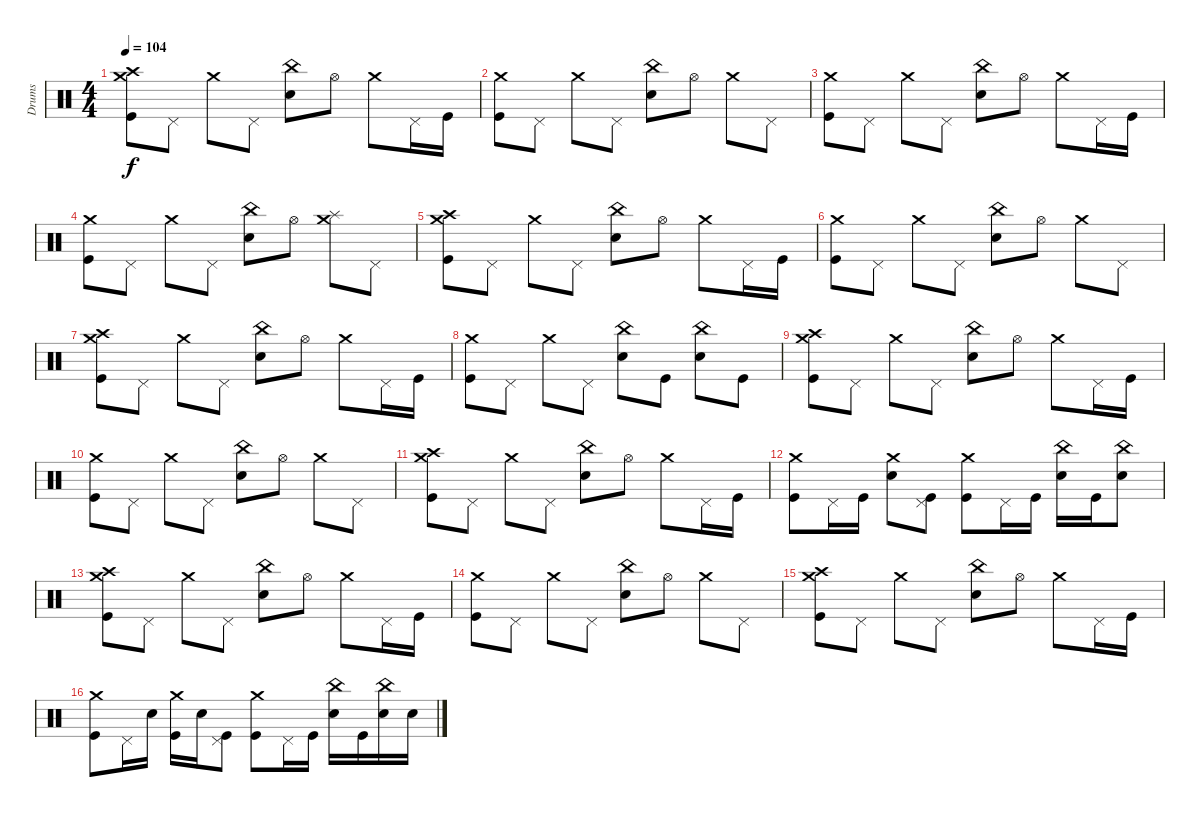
\track ("Drums" "Drums") {instrument percussion}
\staff {score}
\articulation defaults
\ts (4 4)
\tempo 104
\clef neutral
\ks c
("Crash medium (hit)" "Crash high (hit)" "Kick (hit)").8{dy f} "Pedal Hi-Hat (hit)".8 "Crash medium (hit)".8 "Pedal Hi-Hat (hit)".8 ("China (hit)" "Electric Snare (hit)").8 "Hi-Hat (open)".8 "Crash medium (hit)".8 "Pedal Hi-Hat (hit)".16 "Kick (hit)".16 |
("Crash medium (hit)" "Kick (hit)").8 "Pedal Hi-Hat (hit)".8 "Crash medium (hit)".8 "Pedal Hi-Hat (hit)".8 ("China (hit)" "Electric Snare (hit)").8 "Hi-Hat (open)".8 "Crash medium (hit)".8 "Pedal Hi-Hat (hit)".8 |
("Crash medium (hit)" "Kick (hit)").8 "Pedal Hi-Hat (hit)".8 "Crash medium (hit)".8 "Pedal Hi-Hat (hit)".8 ("China (hit)" "Electric Snare (hit)").8 "Hi-Hat (open)".8 "Crash medium (hit)".8 "Pedal Hi-Hat (hit)".16 "Kick (hit)".16 |
("Crash medium (hit)" "Kick (hit)").8 "Pedal Hi-Hat (hit)".8 "Crash medium (hit)".8 "Pedal Hi-Hat (hit)".8 ("China (hit)" "Electric Snare (hit)").8 "Hi-Hat (open)".8 ("Crash medium (hit)" "Splash (hit)").8 "Pedal Hi-Hat (hit)".8 |
("Crash medium (hit)" "Crash high (hit)" "Kick (hit)").8 "Pedal Hi-Hat (hit)".8 "Crash medium (hit)".8 "Pedal Hi-Hat (hit)".8 ("China (hit)" "Electric Snare (hit)").8 "Hi-Hat (open)".8 "Crash medium (hit)".8 "Pedal Hi-Hat (hit)".16 "Kick (hit)".16 |
("Crash medium (hit)" "Kick (hit)").8 "Pedal Hi-Hat (hit)".8 "Crash medium (hit)".8 "Pedal Hi-Hat (hit)".8 ("China (hit)" "Electric Snare (hit)").8 "Hi-Hat (open)".8 "Crash medium (hit)".8 "Pedal Hi-Hat (hit)".8 |
("Crash medium (hit)" "Crash high (hit)" "Kick (hit)").8 "Pedal Hi-Hat (hit)".8 "Crash medium (hit)".8 "Pedal Hi-Hat (hit)".8 ("China (hit)" "Electric Snare (hit)").8 "Hi-Hat (open)".8 "Crash medium (hit)".8 "Pedal Hi-Hat (hit)".16 "Kick (hit)".16 |
("Crash medium (hit)" "Kick (hit)").8 "Pedal Hi-Hat (hit)".8 "Crash medium (hit)".8 "Pedal Hi-Hat (hit)".8 ("China (hit)" "Electric Snare (hit)").8 "Kick (hit)".8 ("China (hit)" "Electric Snare (hit)").8 "Kick (hit)".8 |
("Crash medium (hit)" "Crash high (hit)" "Kick (hit)").8 "Pedal Hi-Hat (hit)".8 "Crash medium (hit)".8 "Pedal Hi-Hat (hit)".8 ("China (hit)" "Electric Snare (hit)").8 "Hi-Hat (open)".8 "Crash medium (hit)".8 "Pedal Hi-Hat (hit)".16 "Kick (hit)".16 |
("Crash medium (hit)" "Kick (hit)").8 "Pedal Hi-Hat (hit)".8 "Crash medium (hit)".8 "Pedal Hi-Hat (hit)".8 ("China (hit)" "Electric Snare (hit)").8 "Hi-Hat (open)".8 "Crash medium (hit)".8 "Pedal Hi-Hat (hit)".8 |
("Crash medium (hit)" "Crash high (hit)" "Kick (hit)").8 "Pedal Hi-Hat (hit)".8 "Crash medium (hit)".8 "Pedal Hi-Hat (hit)".8 ("China (hit)" "Electric Snare (hit)").8 "Hi-Hat (open)".8 "Crash medium (hit)".8 "Pedal Hi-Hat (hit)".16 "Kick (hit)".16 |
("Crash medium (hit)" "Kick (hit)").8 "Pedal Hi-Hat (hit)".16 "Kick (hit)".16 ("Crash medium (hit)" "Electric Snare (hit)").8 ("Pedal Hi-Hat (hit)" "Kick (hit)").8 ("Crash medium (hit)" "Kick (hit)").8 "Pedal Hi-Hat (hit)".16 "Kick (hit)".16 ("China (hit)" "Electric Snare (hit)").16 "Kick (hit)".16 ("China (hit)" "Electric Snare (hit)").8 |
("Crash medium (hit)" "Crash high (hit)" "Kick (hit)").8 "Pedal Hi-Hat (hit)".8 "Crash medium (hit)".8 "Pedal Hi-Hat (hit)".8 ("China (hit)" "Electric Snare (hit)").8 "Hi-Hat (open)".8 "Crash medium (hit)".8 "Pedal Hi-Hat (hit)".16 "Kick (hit)".16 |
("Crash medium (hit)" "Kick (hit)").8 "Pedal Hi-Hat (hit)".8 "Crash medium (hit)".8 "Pedal Hi-Hat (hit)".8 ("China (hit)" "Electric Snare (hit)").8 "Hi-Hat (open)".8 "Crash medium (hit)".8 "Pedal Hi-Hat (hit)".8 |
("Crash medium (hit)" "Crash high (hit)" "Kick (hit)").8 "Pedal Hi-Hat (hit)".8 "Crash medium (hit)".8 "Pedal Hi-Hat (hit)".8 ("China (hit)" "Electric Snare (hit)").8 "Hi-Hat (open)".8 "Crash medium (hit)".8 "Pedal Hi-Hat (hit)".16 "Kick (hit)".16 |
("Crash medium (hit)" "Kick (hit)").8 "Pedal Hi-Hat (hit)".16 "Electric Snare (hit)".16 ("Crash medium (hit)" "Kick (hit)").16 "Electric Snare (hit)".16 ("Pedal Hi-Hat (hit)" "Kick (hit)").8 ("Crash medium (hit)" "Kick (hit)").8 "Pedal Hi-Hat (hit)".16 "Kick (hit)".16 ("China (hit)" "Electric Snare (hit)").16 "Kick (hit)".16 ("China (hit)" "Electric Snare (hit)").16 "Electric Snare (hit)".16
